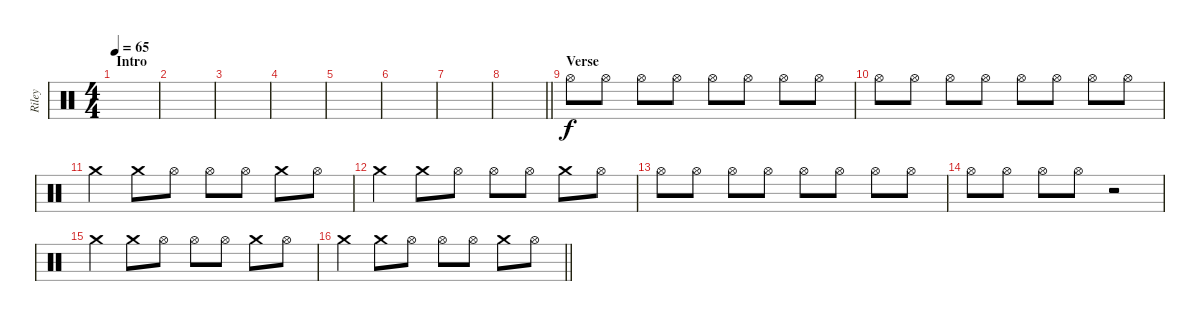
\track ("Riley" "Riley") {instrument percussion}
\staff {score}
\articulation defaults
\ts (4 4)
\section ("" "Intro")
\tempo 65
\clef neutral
\ks c
|
|
|
|
|
|
|
\barLineRight lightlight
|
\section ("" "Verse")
"Hi-Hat (open)".8 "Hi-Hat (open)".8 "Hi-Hat (open)".8 "Hi-Hat (open)".8 "Hi-Hat (open)".8 "Hi-Hat (open)".8 "Hi-Hat (open)".8 "Hi-Hat (open)".8 |
"Hi-Hat (open)".8 "Hi-Hat (open)".8 "Hi-Hat (open)".8 "Hi-Hat (open)".8 "Hi-Hat (open)".8 "Hi-Hat (open)".8 "Hi-Hat (open)".8 "Hi-Hat (open)".8 |
"Crash medium (hit)".4 "Crash medium (hit)".8 "Hi-Hat (open)".8 "Hi-Hat (open)".8 "Hi-Hat (open)".8 "Crash medium (hit)".8 "Hi-Hat (open)".8 |
"Crash medium (hit)".4 "Crash medium (hit)".8 "Hi-Hat (open)".8 "Hi-Hat (open)".8 "Hi-Hat (open)".8 "Crash medium (hit)".8 "Hi-Hat (open)".8 |
"Hi-Hat (open)".8 "Hi-Hat (open)".8 "Hi-Hat (open)".8 "Hi-Hat (open)".8 "Hi-Hat (open)".8 "Hi-Hat (open)".8 "Hi-Hat (open)".8 "Hi-Hat (open)".8 |
"Hi-Hat (open)".8 "Hi-Hat (open)".8 "Hi-Hat (open)".8 "Hi-Hat (open)".8 r.2 |
"Crash medium (hit)".4 "Crash medium (hit)".8 "Hi-Hat (open)".8 "Hi-Hat (open)".8 "Hi-Hat (open)".8 "Crash medium (hit)".8 "Hi-Hat (open)".8 |
\barLineRight lightlight "Crash medium (hit)".4 "Crash medium (hit)".8 "Hi-Hat (open)".8 "Hi-Hat (open)".8 "Hi-Hat (open)".8 "Crash medium (hit)".8 "Hi-Hat (open)".8
